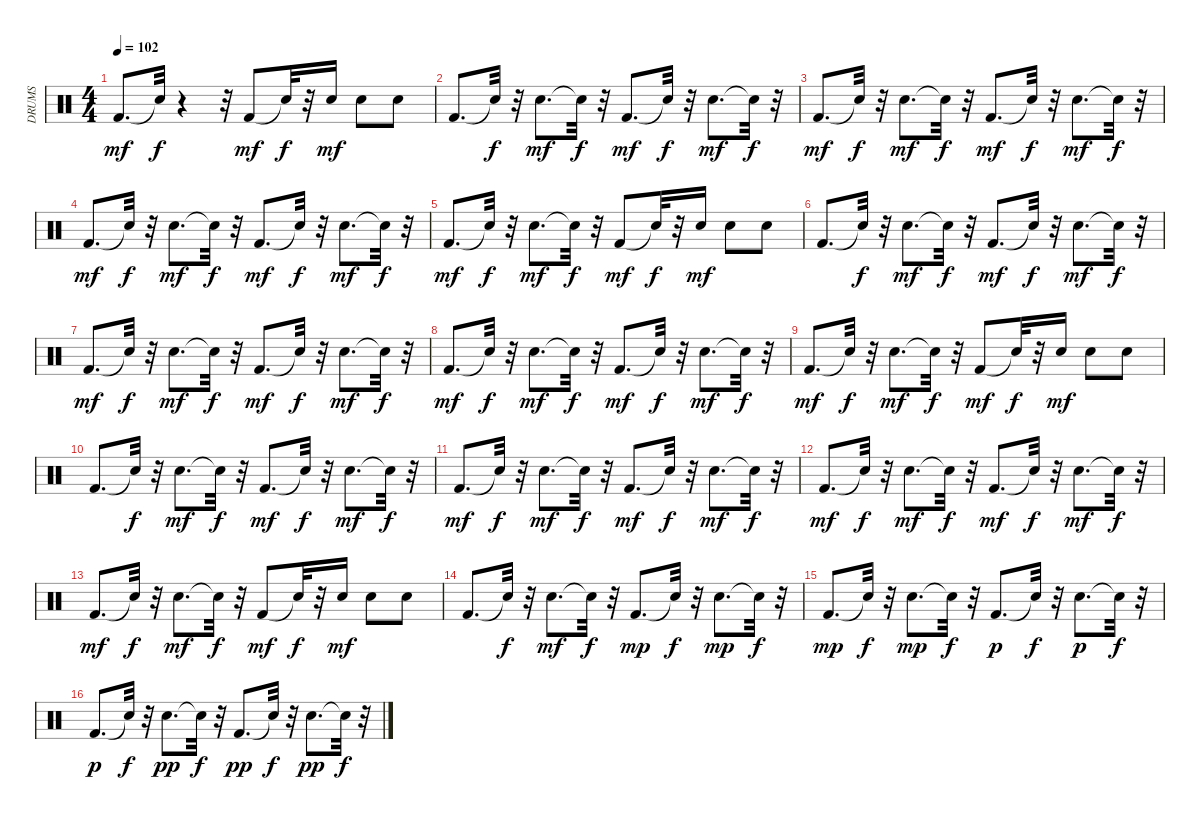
\track ("DRUMS" "DRUMS") {instrument percussion}
\staff {score}
\articulation defaults
\ts (4 4)
\tempo 102
\clef neutral
\ks c "Kick (hit) 2".8{d dy mf} "Snare (hit)"{t}.32{dy f}
r.4 r.32 "Kick (hit) 2".8{dy mf} "Snare (hit)"{t}.32{dy f} r.32 "Snare (hit) 2".16{dy mf} "Snare (hit) 2".8 "Snare (hit) 2".8 |
"Kick (hit) 2".8{d} "Snare (hit)"{t}.32{dy f} r.32 "Snare (hit) 2".8{d dy mf} "Snare (hit)"{t}.32{dy f} r.32 "Kick (hit) 2".8{d dy mf} "Snare (hit)"{t}.32{dy f} r.32 "Snare (hit) 2".8{d dy mf} "Snare (hit)"{t}.32{dy f} r.32 |
"Kick (hit) 2".8{d dy mf} "Snare (hit)"{t}.32{dy f} r.32 "Snare (hit) 2".8{d dy mf} "Snare (hit)"{t}.32{dy f} r.32 "Kick (hit) 2".8{d dy mf} "Snare (hit)"{t}.32{dy f} r.32 "Snare (hit) 2".8{d dy mf} "Snare (hit)"{t}.32{dy f} r.32 |
"Kick (hit) 2".8{d dy mf} "Snare (hit)"{t}.32{dy f} r.32 "Snare (hit) 2".8{d dy mf} "Snare (hit)"{t}.32{dy f} r.32 "Kick (hit) 2".8{d dy mf} "Snare (hit)"{t}.32{dy f} r.32 "Snare (hit) 2".8{d dy mf} "Snare (hit)"{t}.32{dy f} r.32 |
"Kick (hit) 2".8{d dy mf} "Snare (hit)"{t}.32{dy f} r.32 "Snare (hit) 2".8{d dy mf} "Snare (hit)"{t}.32{dy f} r.32 "Kick (hit) 2".8{dy mf} "Snare (hit)"{t}.32{dy f} r.32 "Snare (hit) 2".16{dy mf} "Snare (hit) 2".8 "Snare (hit) 2".8 |
"Kick (hit) 2".8{d} "Snare (hit)"{t}.32{dy f} r.32 "Snare (hit) 2".8{d dy mf} "Snare (hit)"{t}.32{dy f} r.32 "Kick (hit) 2".8{d dy mf} "Snare (hit)"{t}.32{dy f} r.32 "Snare (hit) 2".8{d dy mf} "Snare (hit)"{t}.32{dy f} r.32 |
"Kick (hit) 2".8{d dy mf} "Snare (hit)"{t}.32{dy f} r.32 "Snare (hit) 2".8{d dy mf} "Snare (hit)"{t}.32{dy f} r.32 "Kick (hit) 2".8{d dy mf} "Snare (hit)"{t}.32{dy f} r.32 "Snare (hit) 2".8{d dy mf} "Snare (hit)"{t}.32{dy f} r.32 |
"Kick (hit) 2".8{d dy mf} "Snare (hit)"{t}.32{dy f} r.32 "Snare (hit) 2".8{d dy mf} "Snare (hit)"{t}.32{dy f} r.32 "Kick (hit) 2".8{d dy mf} "Snare (hit)"{t}.32{dy f} r.32 "Snare (hit) 2".8{d dy mf} "Snare (hit)"{t}.32{dy f} r.32 |
"Kick (hit) 2".8{d dy mf} "Snare (hit)"{t}.32{dy f} r.32 "Snare (hit) 2".8{d dy mf} "Snare (hit)"{t}.32{dy f} r.32 "Kick (hit) 2".8{dy mf} "Snare (hit)"{t}.32{dy f} r.32 "Snare (hit) 2".16{dy mf} "Snare (hit) 2".8 "Snare (hit) 2".8 |
"Kick (hit) 2".8{d} "Snare (hit)"{t}.32{dy f} r.32 "Snare (hit) 2".8{d dy mf} "Snare (hit)"{t}.32{dy f} r.32 "Kick (hit) 2".8{d dy mf} "Snare (hit)"{t}.32{dy f} r.32 "Snare (hit) 2".8{d dy mf} "Snare (hit)"{t}.32{dy f} r.32 |
"Kick (hit) 2".8{d dy mf} "Snare (hit)"{t}.32{dy f} r.32 "Snare (hit) 2".8{d dy mf} "Snare (hit)"{t}.32{dy f} r.32 "Kick (hit) 2".8{d dy mf} "Snare (hit)"{t}.32{dy f} r.32 "Snare (hit) 2".8{d dy mf} "Snare (hit)"{t}.32{dy f} r.32 |
"Kick (hit) 2".8{d dy mf} "Snare (hit)"{t}.32{dy f} r.32 "Snare (hit) 2".8{d dy mf} "Snare (hit)"{t}.32{dy f} r.32 "Kick (hit) 2".8{d dy mf} "Snare (hit)"{t}.32{dy f} r.32 "Snare (hit) 2".8{d dy mf} "Snare (hit)"{t}.32{dy f} r.32 |
"Kick (hit) 2".8{d dy mf} "Snare (hit)"{t}.32{dy f} r.32 "Snare (hit) 2".8{d dy mf} "Snare (hit)"{t}.32{dy f} r.32 "Kick (hit) 2".8{dy mf} "Snare (hit)"{t}.32{dy f} r.32 "Snare (hit) 2".16{dy mf} "Snare (hit) 2".8 "Snare (hit) 2".8 |
"Kick (hit) 2".8{d} "Snare (hit)"{t}.32{dy f} r.32 "Snare (hit) 2".8{d dy mf} "Snare (hit)"{t}.32{dy f} r.32 "Kick (hit) 2".8{d dy mp} "Snare (hit)"{t}.32{dy f} r.32 "Snare (hit) 2".8{d dy mp} "Snare (hit)"{t}.32{dy f} r.32 |
"Kick (hit) 2".8{d dy mp} "Snare (hit)"{t}.32{dy f} r.32 "Snare (hit) 2".8{d dy mp} "Snare (hit)"{t}.32{dy f} r.32 "Kick (hit) 2".8{d dy p} "Snare (hit)"{t}.32{dy f} r.32 "Snare (hit) 2".8{d dy p} "Snare (hit)"{t}.32{dy f} r.32 |
"Kick (hit) 2".8{d dy p} "Snare (hit)"{t}.32{dy f} r.32 "Snare (hit) 2".8{d dy pp} "Snare (hit)"{t}.32{dy f} r.32 "Kick (hit) 2".8{d dy pp} "Snare (hit)"{t}.32{dy f} r.32 "Snare (hit) 2".8{d dy pp} "Snare (hit)"{t}.32{dy f} r.32
